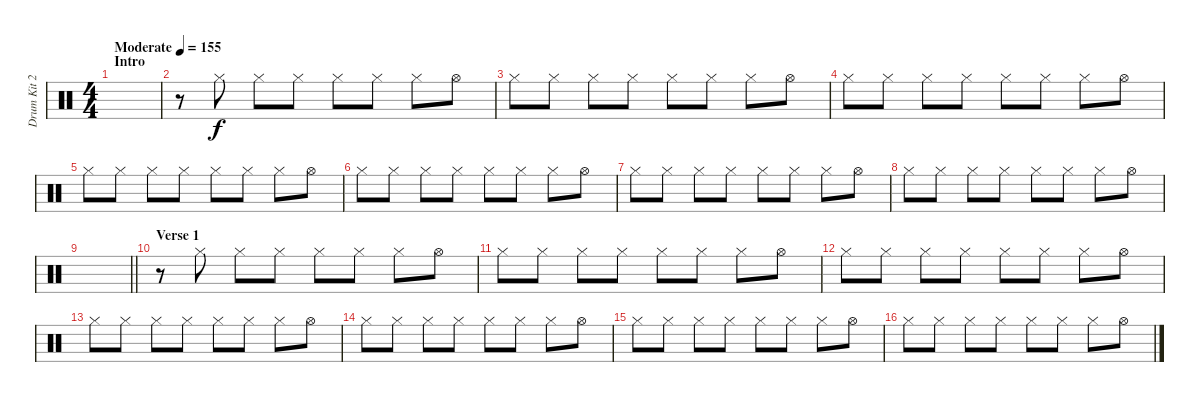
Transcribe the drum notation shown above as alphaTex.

\track ("Drum Kit 2" "Drum Kit 2") {instrument percussion}
\staff {score}
\articulation defaults
\ts (4 4)
\section ("" "Intro")
\tempo (155 "Moderate")
\clef neutral
\ks c
|
r.8 "Hi-Hat (closed)".8 "Hi-Hat (closed)".8 "Hi-Hat (closed)".8 "Hi-Hat (closed)".8 "Hi-Hat (closed)".8 "Hi-Hat (closed)".8 "Hi-Hat (open)".8 |
"Hi-Hat (closed)".8 "Hi-Hat (closed)".8 "Hi-Hat (closed)".8 "Hi-Hat (closed)".8 "Hi-Hat (closed)".8 "Hi-Hat (closed)".8 "Hi-Hat (closed)".8 "Hi-Hat (open)".8 |
"Hi-Hat (closed)".8 "Hi-Hat (closed)".8 "Hi-Hat (closed)".8 "Hi-Hat (closed)".8 "Hi-Hat (closed)".8 "Hi-Hat (closed)".8 "Hi-Hat (closed)".8 "Hi-Hat (open)".8 |
"Hi-Hat (closed)".8 "Hi-Hat (closed)".8 "Hi-Hat (closed)".8 "Hi-Hat (closed)".8 "Hi-Hat (closed)".8 "Hi-Hat (closed)".8 "Hi-Hat (closed)".8 "Hi-Hat (open)".8 |
"Hi-Hat (closed)".8 "Hi-Hat (closed)".8 "Hi-Hat (closed)".8 "Hi-Hat (closed)".8 "Hi-Hat (closed)".8 "Hi-Hat (closed)".8 "Hi-Hat (closed)".8 "Hi-Hat (open)".8 |
"Hi-Hat (closed)".8 "Hi-Hat (closed)".8 "Hi-Hat (closed)".8 "Hi-Hat (closed)".8 "Hi-Hat (closed)".8 "Hi-Hat (closed)".8 "Hi-Hat (closed)".8 "Hi-Hat (open)".8 |
"Hi-Hat (closed)".8 "Hi-Hat (closed)".8 "Hi-Hat (closed)".8 "Hi-Hat (closed)".8 "Hi-Hat (closed)".8 "Hi-Hat (closed)".8 "Hi-Hat (closed)".8 "Hi-Hat (open)".8 |
\barLineRight lightlight
|
\section ("" "Verse 1")
r.8 "Hi-Hat (closed)".8 "Hi-Hat (closed)".8 "Hi-Hat (closed)".8 "Hi-Hat (closed)".8 "Hi-Hat (closed)".8 "Hi-Hat (closed)".8 "Hi-Hat (open)".8 |
"Hi-Hat (closed)".8 "Hi-Hat (closed)".8 "Hi-Hat (closed)".8 "Hi-Hat (closed)".8 "Hi-Hat (closed)".8 "Hi-Hat (closed)".8 "Hi-Hat (closed)".8 "Hi-Hat (open)".8 |
"Hi-Hat (closed)".8 "Hi-Hat (closed)".8 "Hi-Hat (closed)".8 "Hi-Hat (closed)".8 "Hi-Hat (closed)".8 "Hi-Hat (closed)".8 "Hi-Hat (closed)".8 "Hi-Hat (open)".8 |
"Hi-Hat (closed)".8 "Hi-Hat (closed)".8 "Hi-Hat (closed)".8 "Hi-Hat (closed)".8 "Hi-Hat (closed)".8 "Hi-Hat (closed)".8 "Hi-Hat (closed)".8 "Hi-Hat (open)".8 |
"Hi-Hat (closed)".8 "Hi-Hat (closed)".8 "Hi-Hat (closed)".8 "Hi-Hat (closed)".8 "Hi-Hat (closed)".8 "Hi-Hat (closed)".8 "Hi-Hat (closed)".8 "Hi-Hat (open)".8 |
"Hi-Hat (closed)".8 "Hi-Hat (closed)".8 "Hi-Hat (closed)".8 "Hi-Hat (closed)".8 "Hi-Hat (closed)".8 "Hi-Hat (closed)".8 "Hi-Hat (closed)".8 "Hi-Hat (open)".8 |
"Hi-Hat (closed)".8 "Hi-Hat (closed)".8 "Hi-Hat (closed)".8 "Hi-Hat (closed)".8 "Hi-Hat (closed)".8 "Hi-Hat (closed)".8 "Hi-Hat (closed)".8 "Hi-Hat (open)".8
